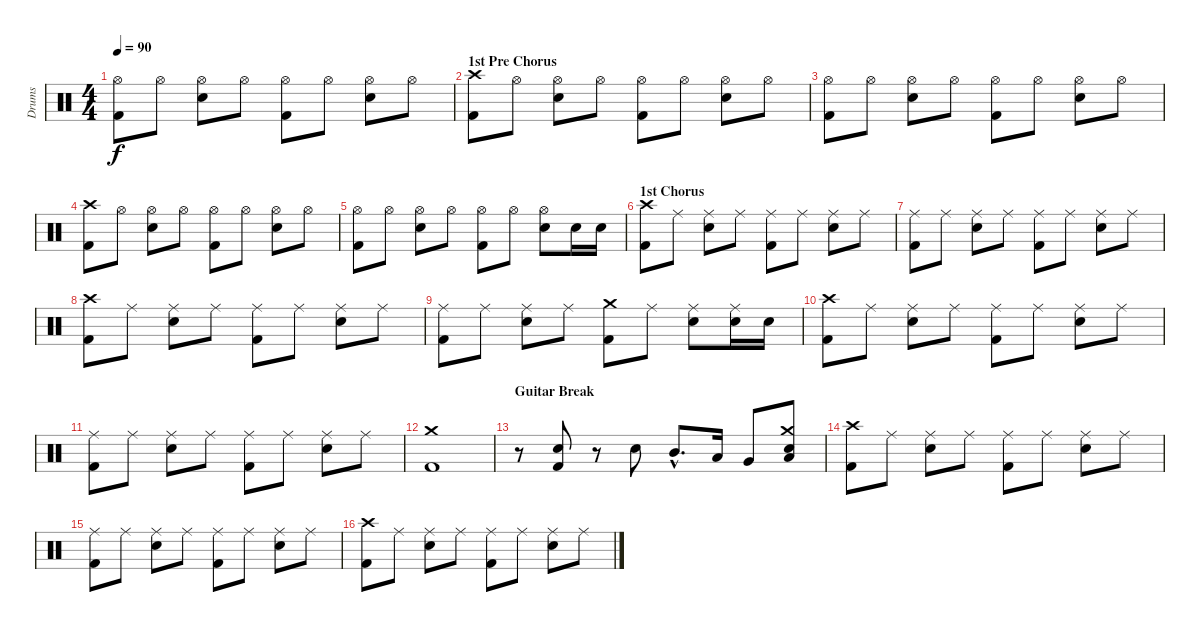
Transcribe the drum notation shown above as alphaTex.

\track ("Drums" "Drums") {instrument percussion}
\staff {score}
\articulation defaults
\ts (4 4)
\tempo 90
\clef neutral
\ks c
("Hi-Hat (open)" "Kick (hit) 2").8{dy f} "Hi-Hat (open)".8 ("Hi-Hat (open)" "Snare (hit) 2").8 "Hi-Hat (open)".8 ("Hi-Hat (open)" "Kick (hit) 2").8 "Hi-Hat (open)".8 ("Hi-Hat (open)" "Snare (hit) 2").8 "Hi-Hat (open)".8 |
\section ("" "1st Pre Chorus")
("Crash high (hit)" "Kick (hit) 2").8 "Hi-Hat (open)".8 ("Hi-Hat (open)" "Snare (hit) 2").8 "Hi-Hat (open)".8 ("Hi-Hat (open)" "Kick (hit) 2").8 "Hi-Hat (open)".8 ("Hi-Hat (open)" "Snare (hit) 2").8 "Hi-Hat (open)".8 |
("Hi-Hat (open)" "Kick (hit) 2").8 "Hi-Hat (open)".8 ("Hi-Hat (open)" "Snare (hit) 2").8 "Hi-Hat (open)".8 ("Hi-Hat (open)" "Kick (hit) 2").8 "Hi-Hat (open)".8 ("Hi-Hat (open)" "Snare (hit) 2").8 "Hi-Hat (open)".8 |
("Crash high (hit)" "Kick (hit) 2").8 "Hi-Hat (open)".8 ("Hi-Hat (open)" "Snare (hit) 2").8 "Hi-Hat (open)".8 ("Hi-Hat (open)" "Kick (hit) 2").8 "Hi-Hat (open)".8 ("Hi-Hat (open)" "Snare (hit) 2").8 "Hi-Hat (open)".8 |
("Hi-Hat (open)" "Kick (hit) 2").8 "Hi-Hat (open)".8 ("Hi-Hat (open)" "Snare (hit) 2").8 "Hi-Hat (open)".8 ("Hi-Hat (open)" "Kick (hit) 2").8 "Hi-Hat (open)".8 ("Hi-Hat (open)" "Snare (hit) 2").8 "Snare (hit) 2".16 "Snare (hit) 2".16 |
\section ("" "1st Chorus")
("Crash high (hit)" "Kick (hit) 2").8 "Ride (middle)".8 ("Ride (middle)" "Snare (hit) 2").8 "Ride (middle)".8 ("Ride (middle)" "Kick (hit) 2").8 "Ride (middle)".8 ("Ride (middle)" "Snare (hit) 2").8 "Ride (middle)".8 |
("Ride (middle)" "Kick (hit) 2").8 "Ride (middle)".8 ("Ride (middle)" "Snare (hit) 2").8 "Ride (middle)".8 ("Ride (middle)" "Kick (hit) 2").8 "Ride (middle)".8 ("Ride (middle)" "Snare (hit) 2").8 "Ride (middle)".8 |
("Crash high (hit)" "Kick (hit) 2").8 "Ride (middle)".8 ("Ride (middle)" "Snare (hit) 2").8 "Ride (middle)".8 ("Ride (middle)" "Kick (hit) 2").8 "Ride (middle)".8 ("Ride (middle)" "Snare (hit) 2").8 "Ride (middle)".8 |
("Ride (middle)" "Kick (hit) 2").8 "Ride (middle)".8 ("Ride (middle)" "Snare (hit) 2").8 "Ride (middle)".8 ("Crash medium (hit)" "Kick (hit) 2").8 "Ride (middle)".8 ("Ride (middle)" "Snare (hit) 2").8 ("Ride (middle)" "Snare (hit) 2").16 "Snare (hit) 2".16 |
("Crash high (hit)" "Kick (hit) 2").8 "Ride (middle)".8 ("Ride (middle)" "Snare (hit) 2").8 "Ride (middle)".8 ("Ride (middle)" "Kick (hit) 2").8 "Ride (middle)".8 ("Ride (middle)" "Snare (hit) 2").8 "Ride (middle)".8 |
("Ride (middle)" "Kick (hit) 2").8 "Ride (middle)".8 ("Ride (middle)" "Snare (hit) 2").8 "Ride (middle)".8 ("Ride (middle)" "Kick (hit) 2").8 "Ride (middle)".8 ("Ride (middle)" "Snare (hit) 2").8 "Ride (middle)".8 |
("Crash medium (hit)" "Kick (hit) 2").1 |
\section ("" "Guitar Break")
r.8 ("Snare (hit) 2" "Kick (hit) 2").8 r.8 "Snare (hit) 2".8 "Mid Tom (hit)"{hac}.8{d} "Low Tom (hit)".16 "Very Low Tom (hit)".8 ("Crash medium (hit)" "Snare (hit) 2" "Low Floor Tom (hit)").8 |
("Crash high (hit)" "Kick (hit) 2").8 "Ride (middle)".8 ("Ride (middle)" "Snare (hit) 2").8 "Ride (middle)".8 ("Ride (middle)" "Kick (hit) 2").8 "Ride (middle)".8 ("Ride (middle)" "Snare (hit) 2").8 "Ride (middle)".8 |
("Ride (middle)" "Kick (hit) 2").8 "Ride (middle)".8 ("Ride (middle)" "Snare (hit) 2").8 "Ride (middle)".8 ("Ride (middle)" "Kick (hit) 2").8 "Ride (middle)".8 ("Ride (middle)" "Snare (hit) 2").8 "Ride (middle)".8 |
("Crash high (hit)" "Kick (hit) 2").8 "Ride (middle)".8 ("Ride (middle)" "Snare (hit) 2").8 "Ride (middle)".8 ("Ride (middle)" "Kick (hit) 2").8 "Ride (middle)".8 ("Ride (middle)" "Snare (hit) 2").8 "Ride (middle)".8
